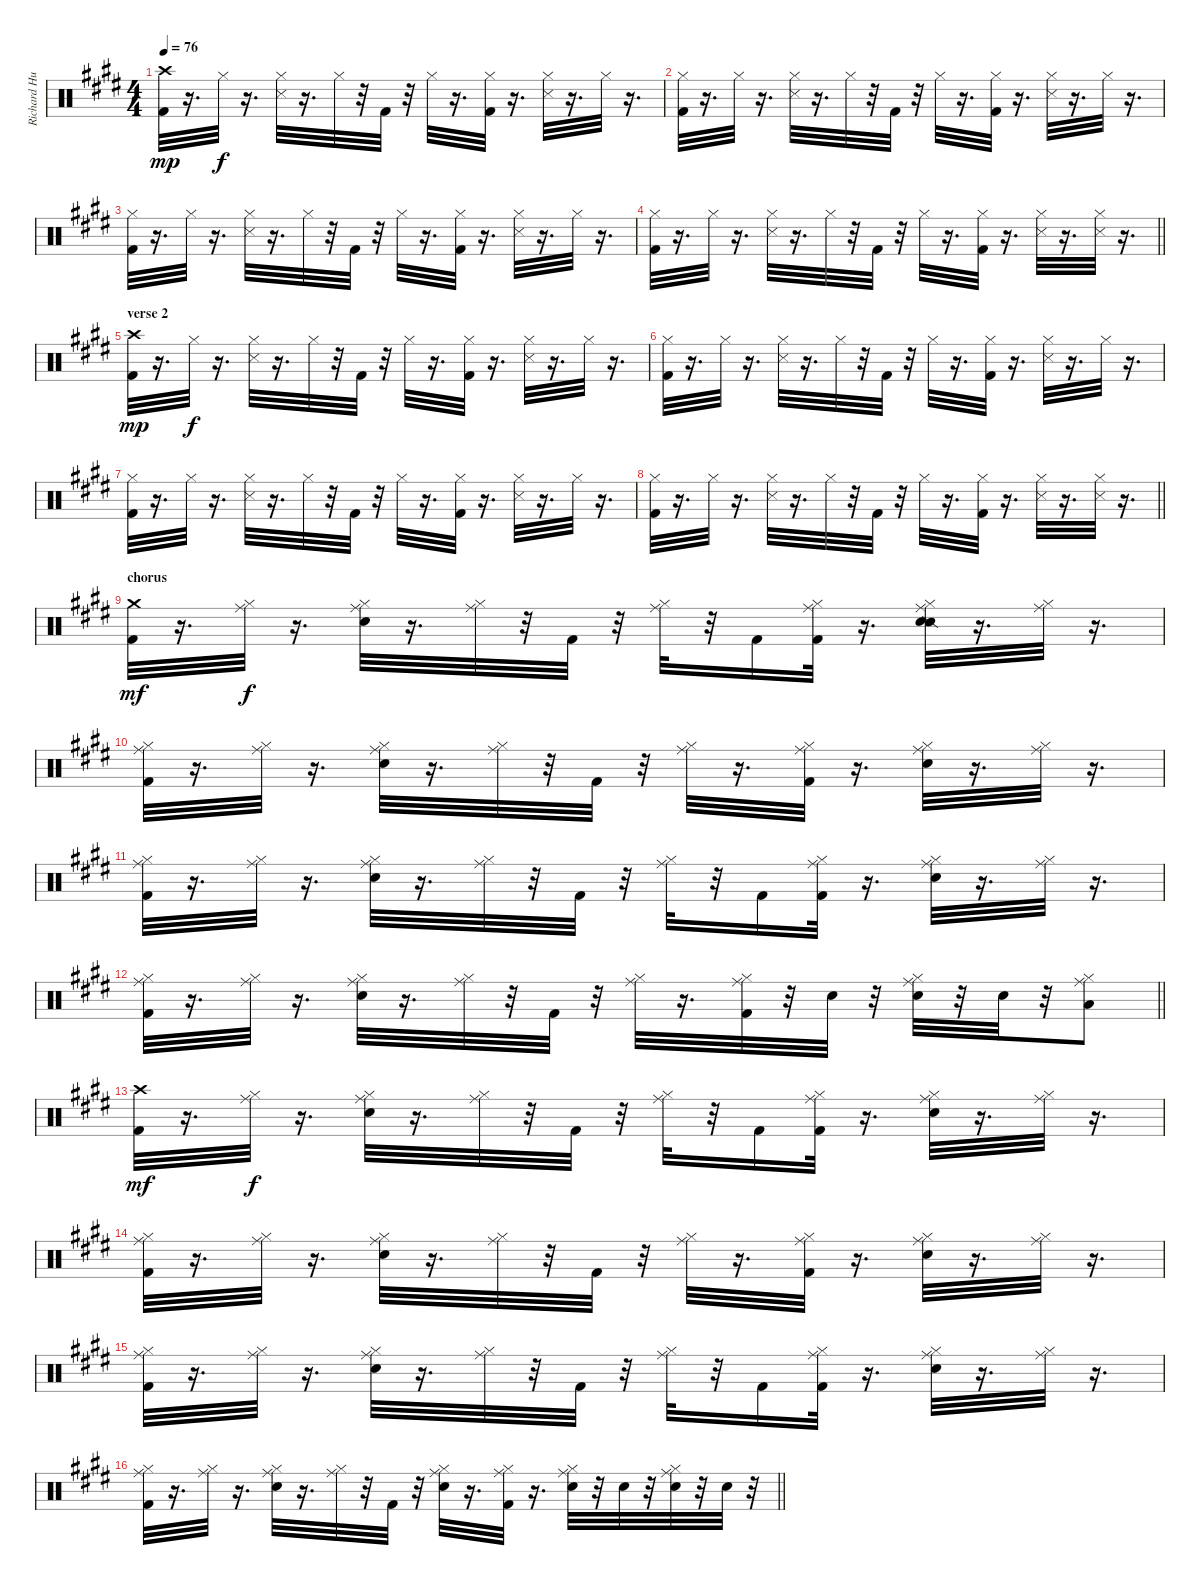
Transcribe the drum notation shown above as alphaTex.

\track ("Richard Hughes" "Richard Hu") {instrument percussion}
\staff {score}
\articulation defaults
\ts (4 4)
\tempo 76
\clef neutral
\ks e
("Kick (hit) 2" "Crash high (hit)").32{dy mp} r.16{d} "Hi-Hat (closed)".32{dy f} r.16{d} ("Hi-Hat (closed)" "Snare (side stick) 3").32 r.16{d} "Hi-Hat (closed)".32 r.32 "Kick (hit) 2".32 r.32 "Hi-Hat (closed)".32 r.16{d} ("Kick (hit) 2" "Hi-Hat (closed)").32 r.16{d} ("Snare (side stick) 3" "Hi-Hat (closed)").32 r.16{d} "Hi-Hat (closed)".32 r.16{d} |
("Kick (hit) 2" "Hi-Hat (closed)").32 r.16{d} "Hi-Hat (closed)".32 r.16{d} ("Snare (side stick) 3" "Hi-Hat (closed)").32 r.16{d} "Hi-Hat (closed)".32 r.32 "Kick (hit) 2".32 r.32 "Hi-Hat (closed)".32 r.16{d} ("Kick (hit) 2" "Hi-Hat (closed)").32 r.16{d} ("Snare (side stick) 3" "Hi-Hat (closed)").32 r.16{d} "Hi-Hat (closed)".32 r.16{d} |
("Kick (hit) 2" "Hi-Hat (closed)").32 r.16{d} "Hi-Hat (closed)".32 r.16{d} ("Hi-Hat (closed)" "Snare (side stick) 3").32 r.16{d} "Hi-Hat (closed)".32 r.32 "Kick (hit) 2".32 r.32 "Hi-Hat (closed)".32 r.16{d} ("Kick (hit) 2" "Hi-Hat (closed)").32 r.16{d} ("Snare (side stick) 3" "Hi-Hat (closed)").32 r.16{d} "Hi-Hat (closed)".32 r.16{d} |
\barLineRight lightlight
("Kick (hit) 2" "Hi-Hat (closed)").32 r.16{d} "Hi-Hat (closed)".32 r.16{d} ("Hi-Hat (closed)" "Snare (side stick) 3").32 r.16{d} "Hi-Hat (closed)".32 r.32 "Kick (hit) 2".32 r.32 "Hi-Hat (closed)".32 r.16{d} ("Kick (hit) 2" "Hi-Hat (closed)").32 r.16{d} ("Hi-Hat (closed)" "Snare (side stick) 3").32 r.16{d} ("Snare (side stick) 3" "Hi-Hat (closed)").32 r.16{d} |
\section ("" "verse 2")
("Kick (hit) 2" "Crash high (hit)").32{dy mp} r.16{d} "Hi-Hat (closed)".32{dy f} r.16{d} ("Hi-Hat (closed)" "Snare (side stick) 3").32 r.16{d} "Hi-Hat (closed)".32 r.32 "Kick (hit) 2".32 r.32 "Hi-Hat (closed)".32 r.16{d} ("Kick (hit) 2" "Hi-Hat (closed)").32 r.16{d} ("Snare (side stick) 3" "Hi-Hat (closed)").32 r.16{d} "Hi-Hat (closed)".32 r.16{d} |
("Kick (hit) 2" "Hi-Hat (closed)").32 r.16{d} "Hi-Hat (closed)".32 r.16{d} ("Snare (side stick) 3" "Hi-Hat (closed)").32 r.16{d} "Hi-Hat (closed)".32 r.32 "Kick (hit) 2".32 r.32 "Hi-Hat (closed)".32 r.16{d} ("Kick (hit) 2" "Hi-Hat (closed)").32 r.16{d} ("Snare (side stick) 3" "Hi-Hat (closed)").32 r.16{d} "Hi-Hat (closed)".32 r.16{d} |
("Kick (hit) 2" "Hi-Hat (closed)").32 r.16{d} "Hi-Hat (closed)".32 r.16{d} ("Hi-Hat (closed)" "Snare (side stick) 3").32 r.16{d} "Hi-Hat (closed)".32 r.32 "Kick (hit) 2".32 r.32 "Hi-Hat (closed)".32 r.16{d} ("Kick (hit) 2" "Hi-Hat (closed)").32 r.16{d} ("Snare (side stick) 3" "Hi-Hat (closed)").32 r.16{d} "Hi-Hat (closed)".32 r.16{d} |
\barLineRight lightlight
("Kick (hit) 2" "Hi-Hat (closed)").32 r.16{d} "Hi-Hat (closed)".32 r.16{d} ("Hi-Hat (closed)" "Snare (side stick) 3").32 r.16{d} "Hi-Hat (closed)".32 r.32 "Kick (hit) 2".32 r.32 "Hi-Hat (closed)".32 r.16{d} ("Kick (hit) 2" "Hi-Hat (closed)").32 r.16{d} ("Hi-Hat (closed)" "Snare (side stick) 3").32 r.16{d} ("Snare (side stick) 3" "Hi-Hat (closed)").32 r.16{d} |
\section ("" "chorus")
("Kick (hit) 2" "Crash medium (hit)").32{dy mf} r.16{d} ("Ride (middle)" "Hi-Hat (closed)").32{dy f} r.16{d} ("Hi-Hat (closed)" "Ride (middle)" "Electric Snare (hit)").32 r.16{d} ("Ride (middle)" "Hi-Hat (closed)").32 r.32 "Kick (hit) 2".32 r.32 ("Ride (middle)" "Hi-Hat (closed)").32 r.32 "Kick (hit) 2".16 ("Kick (hit) 2" "Hi-Hat (closed)" "Ride (middle)").32 r.16{d} ("Hi-Hat (closed)" "Ride (middle)" "Snare (side stick) 2" "Electric Snare (hit)").32 r.16{d} ("Hi-Hat (closed)" "Ride (middle)").32 r.16{d} |
("Kick (hit) 2" "Ride (middle)" "Hi-Hat (closed)").32 r.16{d} ("Ride (middle)" "Hi-Hat (closed)").32 r.16{d} ("Ride (middle)" "Hi-Hat (closed)" "Electric Snare (hit)").32 r.16{d} ("Hi-Hat (closed)" "Ride (middle)").32 r.32 "Kick (hit) 2".32 r.32 ("Ride (middle)" "Hi-Hat (closed)").32 r.16{d} ("Kick (hit) 2" "Ride (middle)" "Hi-Hat (closed)").32 r.16{d} ("Ride (middle)" "Hi-Hat (closed)" "Electric Snare (hit)").32 r.16{d} ("Ride (middle)" "Hi-Hat (closed)").32 r.16{d} |
("Kick (hit) 2" "Hi-Hat (closed)" "Ride (middle)").32 r.16{d} ("Hi-Hat (closed)" "Ride (middle)").32 r.16{d} ("Ride (middle)" "Hi-Hat (closed)" "Electric Snare (hit)").32 r.16{d} ("Ride (middle)" "Hi-Hat (closed)").32 r.32 "Kick (hit) 2".32 r.32 ("Ride (middle)" "Hi-Hat (closed)").32 r.32 "Kick (hit) 2".16 ("Kick (hit) 2" "Hi-Hat (closed)" "Ride (middle)").32 r.16{d} ("Hi-Hat (closed)" "Ride (middle)" "Electric Snare (hit)").32 r.16{d} ("Hi-Hat (closed)" "Ride (middle)").32 r.16{d} |
\barLineRight lightlight
("Kick (hit) 2" "Hi-Hat (closed)" "Ride (middle)").32 r.16{d} ("Hi-Hat (closed)" "Ride (middle)").32 r.16{d} ("Hi-Hat (closed)" "Ride (middle)" "Electric Snare (hit)").32 r.16{d} ("Hi-Hat (closed)" "Ride (middle)").32 r.32 "Kick (hit) 2".32 r.32 ("Hi-Hat (closed)" "Ride (middle)").32 r.16{d} ("Kick (hit) 2" "Ride (middle)" "Hi-Hat (closed)").32 r.32 "Electric Snare (hit)".32 r.32 ("Ride (middle)" "Hi-Hat (closed)" "Electric Snare (hit)").32 r.32 "Electric Snare (hit)".32 r.32 ("Low Tom (hit)" "Hi-Hat (closed)" "Ride (middle)").8 |
("Kick (hit) 2" "Crash high (hit)").32{dy mf} r.16{d} ("Hi-Hat (closed)" "Ride (middle)").32{dy f} r.16{d} ("Hi-Hat (closed)" "Ride (middle)" "Electric Snare (hit)").32 r.16{d} ("Ride (middle)" "Hi-Hat (closed)").32 r.32 "Kick (hit) 2".32 r.32 ("Hi-Hat (closed)" "Ride (middle)").32 r.32 "Kick (hit) 2".16 ("Kick (hit) 2" "Ride (middle)" "Hi-Hat (closed)").32 r.16{d} ("Ride (middle)" "Hi-Hat (closed)" "Electric Snare (hit)").32 r.16{d} ("Ride (middle)" "Hi-Hat (closed)").32 r.16{d} |
("Kick (hit) 2" "Ride (middle)" "Hi-Hat (closed)").32 r.16{d} ("Ride (middle)" "Hi-Hat (closed)").32 r.16{d} ("Ride (middle)" "Hi-Hat (closed)" "Electric Snare (hit)").32 r.16{d} ("Hi-Hat (closed)" "Ride (middle)").32 r.32 "Kick (hit) 2".32 r.32 ("Hi-Hat (closed)" "Ride (middle)").32 r.16{d} ("Kick (hit) 2" "Ride (middle)" "Hi-Hat (closed)").32 r.16{d} ("Hi-Hat (closed)" "Ride (middle)" "Electric Snare (hit)").32 r.16{d} ("Ride (middle)" "Hi-Hat (closed)").32 r.16{d} |
("Kick (hit) 2" "Ride (middle)" "Hi-Hat (closed)").32 r.16{d} ("Hi-Hat (closed)" "Ride (middle)").32 r.16{d} ("Ride (middle)" "Hi-Hat (closed)" "Electric Snare (hit)").32 r.16{d} ("Hi-Hat (closed)" "Ride (middle)").32 r.32 "Kick (hit) 2".32 r.32 ("Hi-Hat (closed)" "Ride (middle)").32 r.32 "Kick (hit) 2".16 ("Kick (hit) 2" "Ride (middle)" "Hi-Hat (closed)").32 r.16{d} ("Ride (middle)" "Hi-Hat (closed)" "Electric Snare (hit)").32 r.16{d} ("Hi-Hat (closed)" "Ride (middle)").32 r.16{d} |
\barLineRight lightlight
("Kick (hit) 2" "Ride (middle)" "Hi-Hat (closed)").32 r.16{d} ("Ride (middle)" "Hi-Hat (closed)").32 r.16{d} ("Ride (middle)" "Hi-Hat (closed)" "Electric Snare (hit)").32 r.16{d} ("Hi-Hat (closed)" "Ride (middle)").32 r.32 "Kick (hit) 2".32 r.32 ("Hi-Hat (closed)" "Ride (middle)" "Electric Snare (hit)").32 r.16{d} ("Kick (hit) 2" "Hi-Hat (closed)" "Ride (middle)").32 r.16{d} ("Ride (middle)" "Hi-Hat (closed)" "Electric Snare (hit)").32 r.32 "Electric Snare (hit)".32 r.32 ("Electric Snare (hit)" "Hi-Hat (closed)" "Ride (middle)").32 r.32 "Electric Snare (hit)".32 r.32
